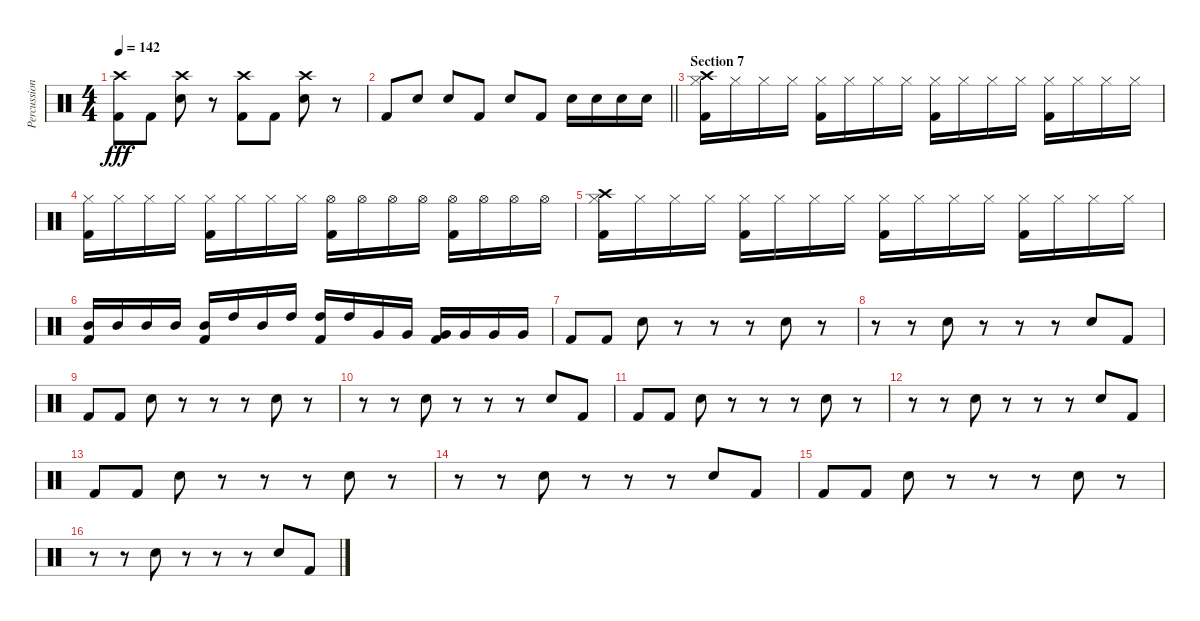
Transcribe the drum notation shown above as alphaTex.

\track ("Percussion" "Percussion") {instrument percussion}
\staff {score}
\articulation defaults
\ts (4 4)
\tempo 142
\clef neutral
\ks c
("Crash high (hit)" "Kick (hit) 2").8{dy fff} "Kick (hit) 2".8 ("Crash high (hit)" "Electric Snare (hit)").8 r.8 ("Crash high (hit)" "Kick (hit) 2").8 "Kick (hit) 2".8 ("Crash high (hit)" "Electric Snare (hit)").8 r.8 |
\barLineRight lightlight "Kick (hit) 2".8 "Electric Snare (hit)".8 "Electric Snare (hit)".8 "Kick (hit) 2".8 "Electric Snare (hit)".8 "Kick (hit) 2".8 "Electric Snare (hit)".16 "Electric Snare (hit)".16 "Electric Snare (hit)".16 "Electric Snare (hit)".16
|
\section ("" "Section 7")
("Crash high (hit)" "Hi-Hat (closed)" "Kick (hit) 2").16 "Hi-Hat (closed)".16 "Hi-Hat (closed)".16 "Hi-Hat (closed)".16 ("Hi-Hat (closed)" "Kick (hit) 2").16 "Hi-Hat (closed)".16 "Hi-Hat (closed)".16 "Hi-Hat (closed)".16 ("Hi-Hat (closed)" "Kick (hit) 2").16 "Hi-Hat (closed)".16 "Hi-Hat (closed)".16 "Hi-Hat (closed)".16 ("Hi-Hat (closed)" "Kick (hit) 2").16 "Hi-Hat (closed)".16 "Hi-Hat (closed)".16 "Hi-Hat (closed)".16 |
("Hi-Hat (closed)" "Kick (hit) 2").16 "Hi-Hat (closed)".16 "Hi-Hat (closed)".16 "Hi-Hat (closed)".16 ("Hi-Hat (closed)" "Kick (hit) 2").16 "Hi-Hat (closed)".16 "Hi-Hat (closed)".16 "Hi-Hat (closed)".16 ("Hi-Hat (open)" "Kick (hit) 2").16 "Hi-Hat (open)".16 "Hi-Hat (open)".16 "Hi-Hat (open)".16 ("Hi-Hat (open)" "Kick (hit) 2").16 "Hi-Hat (open)".16 "Hi-Hat (open)".16 "Hi-Hat (open)".16 |
("Crash high (hit)" "Hi-Hat (closed)" "Kick (hit) 2").16 "Hi-Hat (closed)".16 "Hi-Hat (closed)".16 "Hi-Hat (closed)".16 ("Hi-Hat (closed)" "Kick (hit) 2").16 "Hi-Hat (closed)".16 "Hi-Hat (closed)".16 "Hi-Hat (closed)".16 ("Hi-Hat (closed)" "Kick (hit) 2").16 "Hi-Hat (closed)".16 "Hi-Hat (closed)".16 "Hi-Hat (closed)".16 ("Hi-Hat (closed)" "Kick (hit) 2").16 "Hi-Hat (closed)".16 "Hi-Hat (closed)".16 "Hi-Hat (closed)".16 |
("Mid Tom (hit)" "Kick (hit) 2").16 "Mid Tom (hit)".16 "Mid Tom (hit)".16 "Mid Tom (hit)".16 ("Mid Tom (hit)" "Kick (hit) 2").16 "High Tom (hit)".16 "Mid Tom (hit)".16 "High Tom (hit)".16 ("High Tom (hit)" "Kick (hit) 2").16 "High Tom (hit)".16 "Very Low Tom (hit)".16 "Very Low Tom (hit)".16 ("Very Low Tom (hit)" "Kick (hit) 2").16 "Very Low Tom (hit)".16 "Very Low Tom (hit)".16 "Very Low Tom (hit)".16 |
"Kick (hit) 2".8 "Kick (hit) 2".8 "Electric Snare (hit)".8 r.8 r.8 r.8 "Electric Snare (hit)".8 r.8 |
r.8 r.8 "Electric Snare (hit)".8 r.8 r.8 r.8 "Electric Snare (hit)".8 "Kick (hit) 2".8 |
"Kick (hit) 2".8 "Kick (hit) 2".8 "Electric Snare (hit)".8 r.8 r.8 r.8 "Electric Snare (hit)".8 r.8 |
r.8 r.8 "Electric Snare (hit)".8 r.8 r.8 r.8 "Electric Snare (hit)".8 "Kick (hit) 2".8 |
"Kick (hit) 2".8 "Kick (hit) 2".8 "Electric Snare (hit)".8 r.8 r.8 r.8 "Electric Snare (hit)".8 r.8 |
r.8 r.8 "Electric Snare (hit)".8 r.8 r.8 r.8 "Electric Snare (hit)".8 "Kick (hit) 2".8 |
"Kick (hit) 2".8 "Kick (hit) 2".8 "Electric Snare (hit)".8 r.8 r.8 r.8 "Electric Snare (hit)".8 r.8 |
r.8 r.8 "Electric Snare (hit)".8 r.8 r.8 r.8 "Electric Snare (hit)".8 "Kick (hit) 2".8 |
"Kick (hit) 2".8 "Kick (hit) 2".8 "Electric Snare (hit)".8 r.8 r.8 r.8 "Electric Snare (hit)".8 r.8 |
r.8 r.8 "Electric Snare (hit)".8 r.8 r.8 r.8 "Electric Snare (hit)".8 "Kick (hit) 2".8
